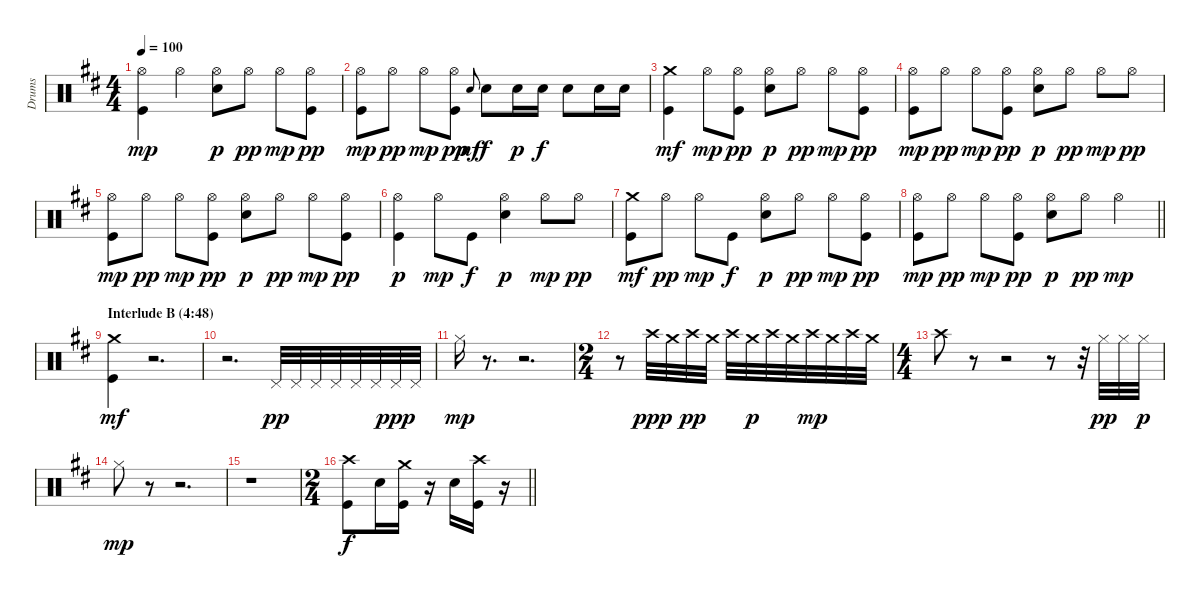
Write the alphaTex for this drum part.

\track ("Drums" "Drums") {instrument percussion}
\staff {score}
\articulation defaults
\ts (4 4)
\tempo 100
\clef neutral
\ks bminor
("Hi-Hat (open)" "Kick (hit)").4{dy mp} "Hi-Hat (open)".4 ("Hi-Hat (open)" "Snare (hit) 2").8{dy p} "Hi-Hat (open)".8{dy pp} "Hi-Hat (open)".8{dy mp} ("Hi-Hat (open)" "Kick (hit)").8{dy pp} |
("Hi-Hat (open)" "Kick (hit)").8{dy mp} "Hi-Hat (open)".8{dy pp} "Hi-Hat (open)".8{dy mp} ("Hi-Hat (open)" "Kick (hit)").8{dy pp} "Snare (hit) 2".8{gr onbeat dy mf} "Snare (hit) 2".8{dy f} "Snare (hit) 2".16{dy p} "Snare (hit) 2".16{dy f} "Snare (hit) 2".8 "Snare (hit) 2".16 "Snare (hit) 2".16 |
("Crash medium (hit)" "Kick (hit)").4{dy mf} "Hi-Hat (open)".8{dy mp} ("Hi-Hat (open)" "Kick (hit)").8{dy pp} ("Hi-Hat (open)" "Snare (hit) 2").8{dy p} "Hi-Hat (open)".8{dy pp} "Hi-Hat (open)".8{dy mp} ("Hi-Hat (open)" "Kick (hit)").8{dy pp} |
("Hi-Hat (open)" "Kick (hit)").8{dy mp} "Hi-Hat (open)".8{dy pp} "Hi-Hat (open)".8{dy mp} ("Hi-Hat (open)" "Kick (hit)").8{dy pp} ("Hi-Hat (open)" "Snare (hit) 2").8{dy p} "Hi-Hat (open)".8{dy pp} "Hi-Hat (open)".8{dy mp} "Hi-Hat (open)".8{dy pp} |
("Hi-Hat (open)" "Kick (hit)").8{dy mp} "Hi-Hat (open)".8{dy pp} "Hi-Hat (open)".8{dy mp} ("Hi-Hat (open)" "Kick (hit)").8{dy pp} ("Hi-Hat (open)" "Snare (hit) 2").8{dy p} "Hi-Hat (open)".8{dy pp} "Hi-Hat (open)".8{dy mp} ("Hi-Hat (open)" "Kick (hit)").8{dy pp} |
("Hi-Hat (open)" "Kick (hit)").4{dy p} "Hi-Hat (open)".8{dy mp} "Kick (hit)".8{dy f} ("Hi-Hat (open)" "Snare (hit) 2").4{dy p} "Hi-Hat (open)".8{dy mp} "Hi-Hat (open)".8{dy pp} |
("Crash medium (hit)" "Kick (hit)").8{dy mf} "Hi-Hat (open)".8{dy pp} "Hi-Hat (open)".8{dy mp} "Kick (hit)".8{dy f} ("Hi-Hat (open)" "Snare (hit) 2").8{dy p} "Hi-Hat (open)".8{dy pp} "Hi-Hat (open)".8{dy mp} ("Hi-Hat (open)" "Kick (hit)").8{dy pp} |
\barLineRight lightlight
("Hi-Hat (open)" "Kick (hit)").8{dy mp} "Hi-Hat (open)".8{dy pp} "Hi-Hat (open)".8{dy mp} ("Hi-Hat (open)" "Kick (hit)").8{dy pp} ("Hi-Hat (open)" "Snare (hit) 2").8{dy p} "Hi-Hat (open)".8{dy pp} "Hi-Hat (open)".4{dy mp} |
\section ("" "Interlude B (4:48)")
("Crash medium (hit)" "Kick (hit)").4{dy mf} r.2{d} |
r.2{d} "Pedal Hi-Hat (hit)".32{dy pp} "Pedal Hi-Hat (hit)".32 "Pedal Hi-Hat (hit)".32 "Pedal Hi-Hat (hit)".32 "Pedal Hi-Hat (hit)".32 "Pedal Hi-Hat (hit)".32 "Pedal Hi-Hat (hit)".32{dy ppp} "Pedal Hi-Hat (hit)".32 |
"Hi-Hat (closed)".16{dy mp} r.8{d} r.2{d} |
\ts (2 4)
r.8 "Crash high (hit)".32{dy ppp} "Crash medium (hit)".32 "Crash high (hit)".32{dy pp} "Crash medium (hit)".32 "Crash high (hit)".32 "Crash medium (hit)".32{dy p} "Crash high (hit)".32 "Crash medium (hit)".32 "Crash high (hit)".32{dy mp} "Crash medium (hit)".32 "Crash high (hit)".32 "Crash medium (hit)".32 |
\ts (4 4)
"Crash high (hit)".8 r.8 r.2 r.8 r.32 "Hi-Hat (closed)".32{dy pp} "Hi-Hat (closed)".32 "Hi-Hat (closed)".32{dy p} |
"Hi-Hat (closed)".8{dy mp} r.8 r.2{d} |
r.1 |
\ts (2 4)
\barLineRight lightlight
("Crash high (hit)" "Kick (hit)").8{dy f} "Snare (hit) 2".16 ("Crash medium (hit)" "Kick (hit)").16 r.16 "Snare (hit) 2".16 ("Crash high (hit)" "Kick (hit)").16 r.16
